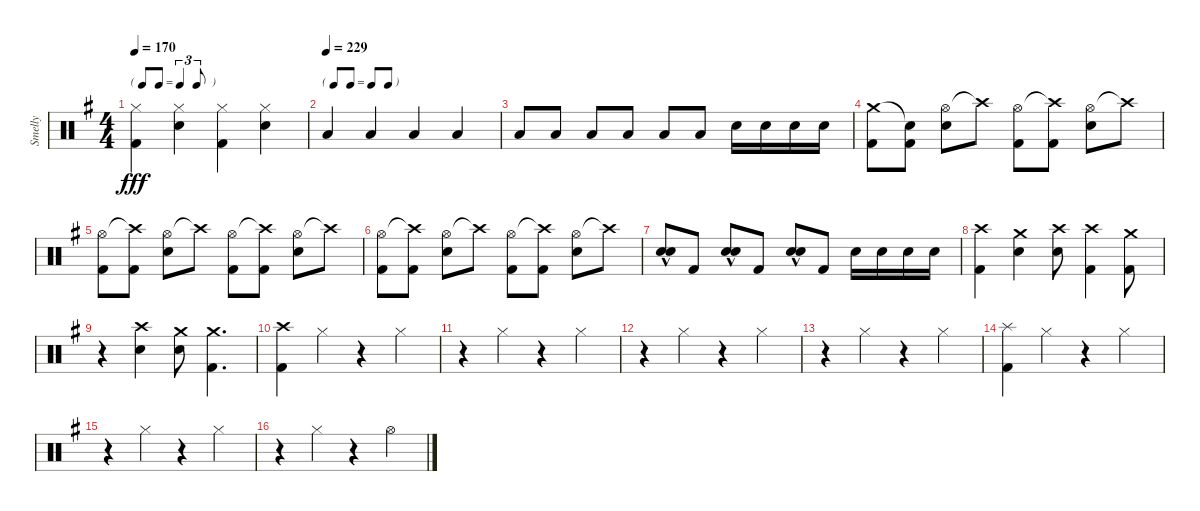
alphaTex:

\track ("Smelly" "Smelly") {instrument percussion}
\staff {score}
\articulation defaults
\ts (4 4)
\tf triplet8th
\tempo 170
\clef neutral
\ks eminor
("Hi-Hat (closed)" "Kick (hit) 2").4{dy fff} ("Hi-Hat (closed)" "Electric Snare (hit)").4 ("Hi-Hat (closed)" "Kick (hit) 2").4 ("Hi-Hat (closed)" "Electric Snare (hit)").4 |
\tf none
\tempo (229)
"Low Floor Tom (hit)".4 "Low Floor Tom (hit)".4 "Low Floor Tom (hit)".4 "Low Floor Tom (hit)".4 |
"Low Floor Tom (hit)".8 "Low Floor Tom (hit)".8 "Low Floor Tom (hit)".8 "Low Floor Tom (hit)".8 "Low Floor Tom (hit)".8 "Low Floor Tom (hit)".8 "Electric Snare (hit)".16 "Electric Snare (hit)".16 "Electric Snare (hit)".16 "Electric Snare (hit)".16 |
("Crash medium (hit)" "Kick (hit) 2").8 ("Snare (hit)"{t} "Kick (hit) 2").8 ("Hi-Hat (open)" "Electric Snare (hit)").8 "Crash high (hit)"{t}.8 ("Hi-Hat (open)" "Kick (hit) 2").8 ("Crash high (hit)"{t} "Kick (hit) 2").8 ("Hi-Hat (open)" "Electric Snare (hit)").8 "Crash high (hit)"{t}.8 |
("Hi-Hat (open)" "Kick (hit) 2").8 ("Crash high (hit)"{t} "Kick (hit) 2").8 ("Hi-Hat (open)" "Electric Snare (hit)").8 "Crash high (hit)"{t}.8 ("Hi-Hat (open)" "Kick (hit) 2").8 ("Crash high (hit)"{t} "Kick (hit) 2").8 ("Hi-Hat (open)" "Electric Snare (hit)").8 "Crash high (hit)"{t}.8 |
("Hi-Hat (open)" "Kick (hit) 2").8 ("Crash high (hit)"{t} "Kick (hit) 2").8 ("Hi-Hat (open)" "Electric Snare (hit)").8 "Crash high (hit)"{t}.8 ("Hi-Hat (open)" "Kick (hit) 2").8 ("Crash high (hit)"{t} "Kick (hit) 2").8 ("Hi-Hat (open)" "Electric Snare (hit)").8 "Crash high (hit)"{t}.8 |
("Electric Snare (hit)"{hac} "Electric Snare (hit)"{hac}).8 "Kick (hit) 2".8 ("Electric Snare (hit)"{hac} "Electric Snare (hit)"{hac}).8 "Kick (hit) 2".8 ("Electric Snare (hit)"{hac} "Electric Snare (hit)"{hac}).8 "Kick (hit) 2".8 "Electric Snare (hit)".16 "Electric Snare (hit)".16 "Electric Snare (hit)".16 "Electric Snare (hit)".16 |
("Crash high (hit)" "Kick (hit) 2").4 ("Crash medium (hit)" "Electric Snare (hit)").4 ("Crash high (hit)" "Electric Snare (hit)").8 ("Crash high (hit)" "Kick (hit) 2").4 ("Crash medium (hit)" "Kick (hit) 2").8 |
r.4 ("Crash high (hit)" "Electric Snare (hit)").4 ("Crash medium (hit)" "Electric Snare (hit)").8 ("Crash medium (hit)" "Kick (hit) 2").4{d} |
("Crash high (hit)" "Kick (hit) 2").4 "Hi-Hat (closed)".4 r.4 "Hi-Hat (closed)".4 |
r.4 "Hi-Hat (closed)".4 r.4 "Hi-Hat (closed)".4 |
r.4 "Hi-Hat (closed)".4 r.4 "Hi-Hat (closed)".4 |
r.4 "Hi-Hat (closed)".4 r.4 "Hi-Hat (closed)".4 |
("Splash (hit)" "Kick (hit) 2").4 "Hi-Hat (closed)".4 r.4 "Hi-Hat (closed)".4 |
r.4 "Hi-Hat (closed)".4 r.4 "Hi-Hat (closed)".4 |
r.4 "Hi-Hat (closed)".4 r.4 "Hi-Hat (open)".4
